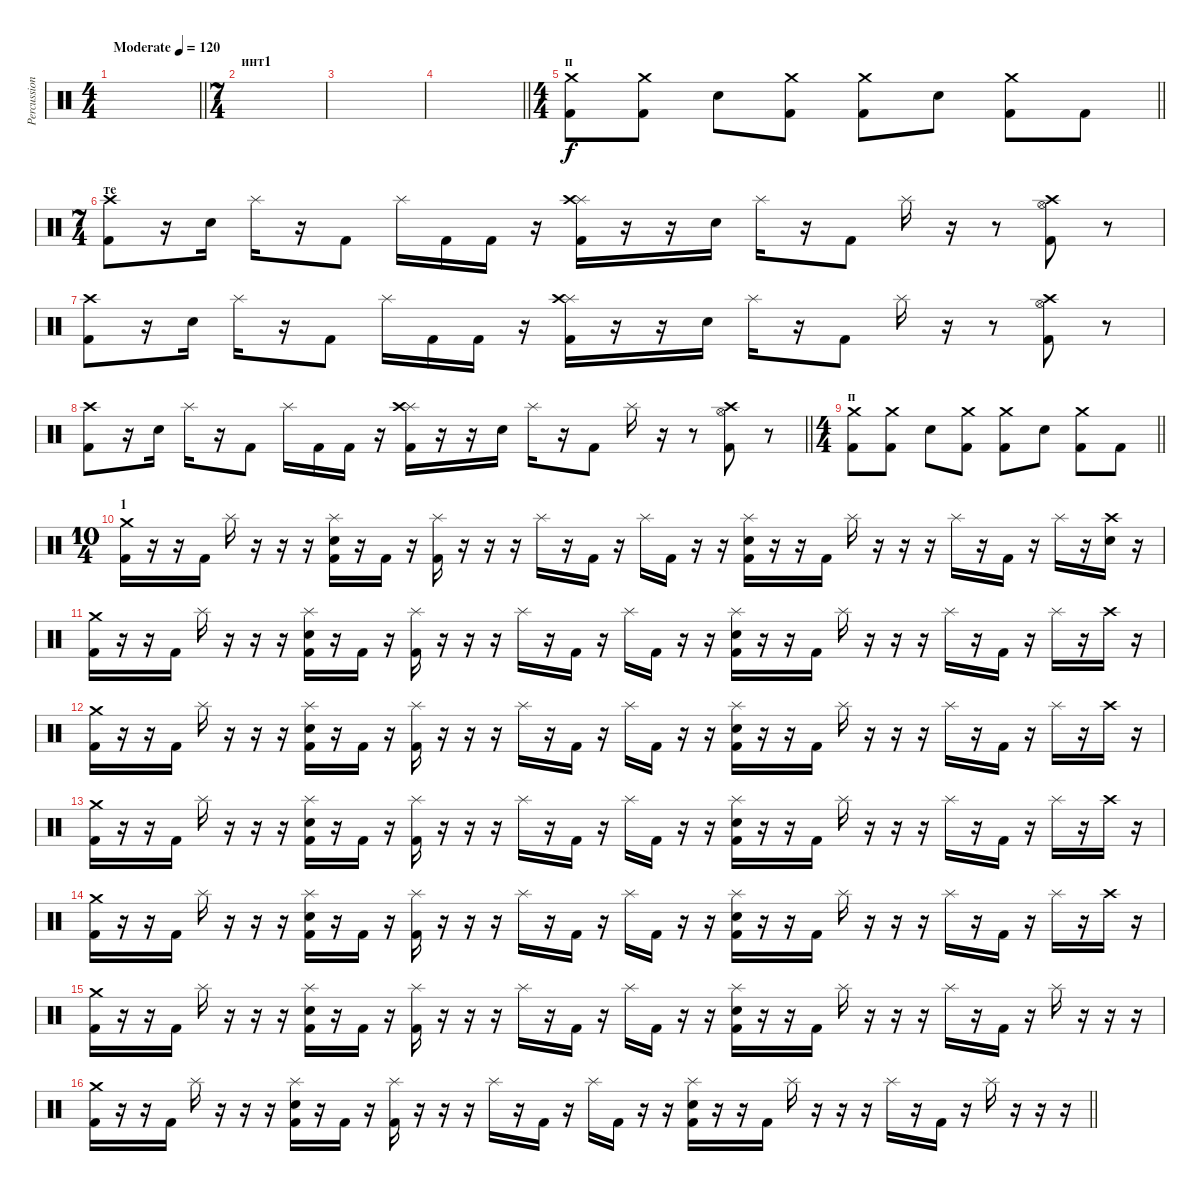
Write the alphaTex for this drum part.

\track ("Percussion" "Percussion") {instrument percussion}
\staff {score}
\articulation defaults
\ts (4 4)
\tempo (120 "Moderate")
\clef neutral
\barLineRight lightlight
\ks c
|
\ts (7 4)
\section ("" "инт1")
|
|
\barLineRight lightlight
|
\ts (4 4)
\section ("" "п")
\barLineRight lightlight
("Kick (hit) 2" "Crash medium (hit)").8 ("Kick (hit) 2" "Crash medium (hit)").8 "Snare (hit) 2".8 ("Kick (hit) 2" "Crash medium (hit)").8 ("Kick (hit) 2" "Crash medium (hit)").8 "Snare (hit) 2".8 ("Kick (hit) 2" "Crash medium (hit)").8 "Kick (hit) 2".8 |
\ts (7 4)
\section ("" "те")
("Crash high (hit)" "Kick (hit) 2").8 r.16 "Snare (hit) 2".16 "Splash (hit)".16 r.16 "Kick (hit) 2".8 "Splash (hit)".16 "Kick (hit) 2".16 "Kick (hit) 2".16 r.16 ("Splash (hit)" "Crash high (hit)" "Kick (hit) 2").16 r.16 r.16 "Snare (hit) 2".16 "Splash (hit)".16 r.16 "Kick (hit) 2".8 "Splash (hit)".16 r.16 r.8 ("Crash high (hit)" "Hi-Hat (open)" "Kick (hit) 2").8 r.8 |
("Crash high (hit)" "Kick (hit) 2").8 r.16 "Snare (hit) 2".16 "Splash (hit)".16 r.16 "Kick (hit) 2".8 "Splash (hit)".16 "Kick (hit) 2".16 "Kick (hit) 2".16 r.16 ("Splash (hit)" "Crash high (hit)" "Kick (hit) 2").16 r.16 r.16 "Snare (hit) 2".16 "Splash (hit)".16 r.16 "Kick (hit) 2".8 "Splash (hit)".16 r.16 r.8 ("Crash high (hit)" "Hi-Hat (open)" "Kick (hit) 2").8 r.8 |
\barLineRight lightlight
("Crash high (hit)" "Kick (hit) 2").8 r.16 "Snare (hit) 2".16 "Splash (hit)".16 r.16 "Kick (hit) 2".8 "Splash (hit)".16 "Kick (hit) 2".16 "Kick (hit) 2".16 r.16 ("Splash (hit)" "Crash high (hit)" "Kick (hit) 2").16 r.16 r.16 "Snare (hit) 2".16 "Splash (hit)".16 r.16 "Kick (hit) 2".8 "Splash (hit)".16 r.16 r.8 ("Crash high (hit)" "Hi-Hat (open)" "Kick (hit) 2").8 r.8 |
\ts (4 4)
\section ("" "п")
\barLineRight lightlight
("Kick (hit) 2" "Crash medium (hit)").8 ("Kick (hit) 2" "Crash medium (hit)").8 "Snare (hit) 2".8 ("Kick (hit) 2" "Crash medium (hit)").8 ("Kick (hit) 2" "Crash medium (hit)").8 "Snare (hit) 2".8 ("Kick (hit) 2" "Crash medium (hit)").8 "Kick (hit) 2".8 |
\ts (10 4)
\section ("" "1")
("Crash medium (hit)" "Kick (hit) 2").16 r.16 r.16 "Kick (hit) 2".16 "Splash (hit)".16 r.16 r.16 r.16 ("Splash (hit)" "Snare (hit) 2" "Kick (hit) 2").16 r.16 "Kick (hit) 2".16 r.16 ("Splash (hit)" "Kick (hit) 2").16 r.16 r.16 r.16 "Splash (hit)".16 r.16 "Kick (hit) 2".16 r.16 "Splash (hit)".16 "Kick (hit) 2".16 r.16 r.16 ("Splash (hit)" "Snare (hit) 2" "Kick (hit) 2").16 r.16 r.16 "Kick (hit) 2".16 "Splash (hit)".16 r.16 r.16 r.16 "Splash (hit)".16 r.16 "Kick (hit) 2".16 r.16 "Splash (hit)".16 r.16 ("Crash high (hit)" "Snare (hit) 2").16 r.16 |
("Crash medium (hit)" "Kick (hit) 2").16 r.16 r.16 "Kick (hit) 2".16 "Splash (hit)".16 r.16 r.16 r.16 ("Splash (hit)" "Snare (hit) 2" "Kick (hit) 2").16 r.16 "Kick (hit) 2".16 r.16 ("Splash (hit)" "Kick (hit) 2").16 r.16 r.16 r.16 "Splash (hit)".16 r.16 "Kick (hit) 2".16 r.16 "Splash (hit)".16 "Kick (hit) 2".16 r.16 r.16 ("Splash (hit)" "Snare (hit) 2" "Kick (hit) 2").16 r.16 r.16 "Kick (hit) 2".16 "Splash (hit)".16 r.16 r.16 r.16 "Splash (hit)".16 r.16 "Kick (hit) 2".16 r.16 "Splash (hit)".16 r.16 "Crash high (hit)".16 r.16 |
("Crash medium (hit)" "Kick (hit) 2").16 r.16 r.16 "Kick (hit) 2".16 "Splash (hit)".16 r.16 r.16 r.16 ("Splash (hit)" "Snare (hit) 2" "Kick (hit) 2").16 r.16 "Kick (hit) 2".16 r.16 ("Splash (hit)" "Kick (hit) 2").16 r.16 r.16 r.16 "Splash (hit)".16 r.16 "Kick (hit) 2".16 r.16 "Splash (hit)".16 "Kick (hit) 2".16 r.16 r.16 ("Splash (hit)" "Snare (hit) 2" "Kick (hit) 2").16 r.16 r.16 "Kick (hit) 2".16 "Splash (hit)".16 r.16 r.16 r.16 "Splash (hit)".16 r.16 "Kick (hit) 2".16 r.16 "Splash (hit)".16 r.16 "Crash high (hit)".16 r.16 |
("Crash medium (hit)" "Kick (hit) 2").16 r.16 r.16 "Kick (hit) 2".16 "Splash (hit)".16 r.16 r.16 r.16 ("Splash (hit)" "Snare (hit) 2" "Kick (hit) 2").16 r.16 "Kick (hit) 2".16 r.16 ("Splash (hit)" "Kick (hit) 2").16 r.16 r.16 r.16 "Splash (hit)".16 r.16 "Kick (hit) 2".16 r.16 "Splash (hit)".16 "Kick (hit) 2".16 r.16 r.16 ("Splash (hit)" "Snare (hit) 2" "Kick (hit) 2").16 r.16 r.16 "Kick (hit) 2".16 "Splash (hit)".16 r.16 r.16 r.16 "Splash (hit)".16 r.16 "Kick (hit) 2".16 r.16 "Splash (hit)".16 r.16 "Crash high (hit)".16 r.16 |
("Crash medium (hit)" "Kick (hit) 2").16 r.16 r.16 "Kick (hit) 2".16 "Splash (hit)".16 r.16 r.16 r.16 ("Splash (hit)" "Snare (hit) 2" "Kick (hit) 2").16 r.16 "Kick (hit) 2".16 r.16 ("Splash (hit)" "Kick (hit) 2").16 r.16 r.16 r.16 "Splash (hit)".16 r.16 "Kick (hit) 2".16 r.16 "Splash (hit)".16 "Kick (hit) 2".16 r.16 r.16 ("Splash (hit)" "Snare (hit) 2" "Kick (hit) 2").16 r.16 r.16 "Kick (hit) 2".16 "Splash (hit)".16 r.16 r.16 r.16 "Splash (hit)".16 r.16 "Kick (hit) 2".16 r.16 "Splash (hit)".16 r.16 "Crash high (hit)".16 r.16 |
("Crash medium (hit)" "Kick (hit) 2").16 r.16 r.16 "Kick (hit) 2".16 "Splash (hit)".16 r.16 r.16 r.16 ("Splash (hit)" "Snare (hit) 2" "Kick (hit) 2").16 r.16 "Kick (hit) 2".16 r.16 ("Splash (hit)" "Kick (hit) 2").16 r.16 r.16 r.16 "Splash (hit)".16 r.16 "Kick (hit) 2".16 r.16 "Splash (hit)".16 "Kick (hit) 2".16 r.16 r.16 ("Splash (hit)" "Snare (hit) 2" "Kick (hit) 2").16 r.16 r.16 "Kick (hit) 2".16 "Splash (hit)".16 r.16 r.16 r.16 "Splash (hit)".16 r.16 "Kick (hit) 2".16 r.16 "Splash (hit)".16 r.16 r.16 r.16 |
\barLineRight lightlight
("Crash medium (hit)" "Kick (hit) 2").16 r.16 r.16 "Kick (hit) 2".16 "Splash (hit)".16 r.16 r.16 r.16 ("Splash (hit)" "Snare (hit) 2" "Kick (hit) 2").16 r.16 "Kick (hit) 2".16 r.16 ("Splash (hit)" "Kick (hit) 2").16 r.16 r.16 r.16 "Splash (hit)".16 r.16 "Kick (hit) 2".16 r.16 "Splash (hit)".16 "Kick (hit) 2".16 r.16 r.16 ("Splash (hit)" "Snare (hit) 2" "Kick (hit) 2").16 r.16 r.16 "Kick (hit) 2".16 "Splash (hit)".16 r.16 r.16 r.16 "Splash (hit)".16 r.16 "Kick (hit) 2".16 r.16 "Splash (hit)".16 r.16 r.16 r.16
